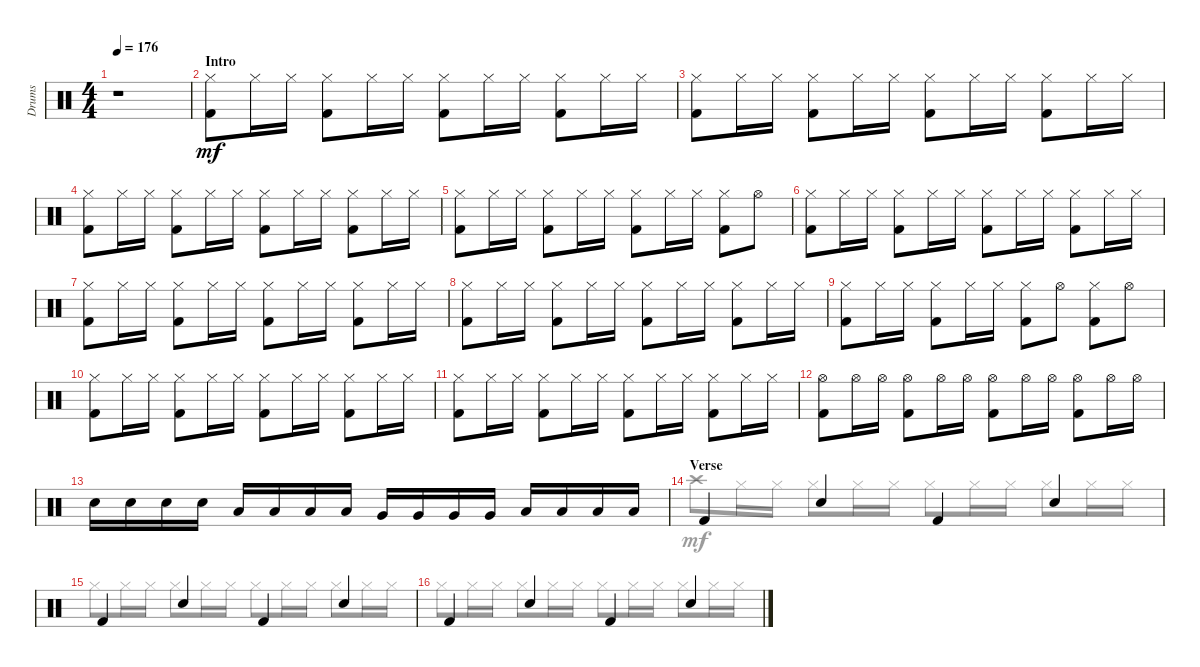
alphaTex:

\track ("Drums" "Drums") {instrument percussion}
\staff {score}
\articulation defaults
\voice
\ts (4 4)
\tempo 176
\clef neutral
\ks aminor
r.1{dy mf} |
\section ("" "Intro")
("Kick (hit) 2" "Hi-Hat (closed)").8 "Hi-Hat (closed)".16 "Hi-Hat (closed)".16 ("Kick (hit) 2" "Hi-Hat (closed)").8 "Hi-Hat (closed)".16 "Hi-Hat (closed)".16 ("Kick (hit) 2" "Hi-Hat (closed)").8 "Hi-Hat (closed)".16 "Hi-Hat (closed)".16 ("Kick (hit) 2" "Hi-Hat (closed)").8 "Hi-Hat (closed)".16 "Hi-Hat (closed)".16 |
("Kick (hit) 2" "Hi-Hat (closed)").8 "Hi-Hat (closed)".16 "Hi-Hat (closed)".16 ("Kick (hit) 2" "Hi-Hat (closed)").8 "Hi-Hat (closed)".16 "Hi-Hat (closed)".16 ("Kick (hit) 2" "Hi-Hat (closed)").8 "Hi-Hat (closed)".16 "Hi-Hat (closed)".16 ("Kick (hit) 2" "Hi-Hat (closed)").8 "Hi-Hat (closed)".16 "Hi-Hat (closed)".16 |
("Kick (hit) 2" "Hi-Hat (closed)").8 "Hi-Hat (closed)".16 "Hi-Hat (closed)".16 ("Kick (hit) 2" "Hi-Hat (closed)").8 "Hi-Hat (closed)".16 "Hi-Hat (closed)".16 ("Kick (hit) 2" "Hi-Hat (closed)").8 "Hi-Hat (closed)".16 "Hi-Hat (closed)".16 ("Kick (hit) 2" "Hi-Hat (closed)").8 "Hi-Hat (closed)".16 "Hi-Hat (closed)".16 |
("Kick (hit) 2" "Hi-Hat (closed)").8 "Hi-Hat (closed)".16 "Hi-Hat (closed)".16 ("Kick (hit) 2" "Hi-Hat (closed)").8 "Hi-Hat (closed)".16 "Hi-Hat (closed)".16 ("Kick (hit) 2" "Hi-Hat (closed)").8 "Hi-Hat (closed)".16 "Hi-Hat (closed)".16 ("Kick (hit) 2" "Hi-Hat (closed)").8 "Hi-Hat (open)".8 |
("Kick (hit) 2" "Hi-Hat (closed)").8 "Hi-Hat (closed)".16 "Hi-Hat (closed)".16 ("Kick (hit) 2" "Hi-Hat (closed)").8 "Hi-Hat (closed)".16 "Hi-Hat (closed)".16 ("Kick (hit) 2" "Hi-Hat (closed)").8 "Hi-Hat (closed)".16 "Hi-Hat (closed)".16 ("Kick (hit) 2" "Hi-Hat (closed)").8 "Hi-Hat (closed)".16 "Hi-Hat (closed)".16 |
("Kick (hit) 2" "Hi-Hat (closed)").8 "Hi-Hat (closed)".16 "Hi-Hat (closed)".16 ("Kick (hit) 2" "Hi-Hat (closed)").8 "Hi-Hat (closed)".16 "Hi-Hat (closed)".16 ("Kick (hit) 2" "Hi-Hat (closed)").8 "Hi-Hat (closed)".16 "Hi-Hat (closed)".16 ("Kick (hit) 2" "Hi-Hat (closed)").8 "Hi-Hat (closed)".16 "Hi-Hat (closed)".16 |
("Kick (hit) 2" "Hi-Hat (closed)").8 "Hi-Hat (closed)".16 "Hi-Hat (closed)".16 ("Kick (hit) 2" "Hi-Hat (closed)").8 "Hi-Hat (closed)".16 "Hi-Hat (closed)".16 ("Kick (hit) 2" "Hi-Hat (closed)").8 "Hi-Hat (closed)".16 "Hi-Hat (closed)".16 ("Kick (hit) 2" "Hi-Hat (closed)").8 "Hi-Hat (closed)".16 "Hi-Hat (closed)".16 |
("Kick (hit) 2" "Hi-Hat (closed)").8 "Hi-Hat (closed)".16 "Hi-Hat (closed)".16 ("Kick (hit) 2" "Hi-Hat (closed)").8 "Hi-Hat (closed)".16 "Hi-Hat (closed)".16 ("Kick (hit) 2" "Hi-Hat (closed)").8 "Hi-Hat (open)".8 ("Kick (hit) 2" "Hi-Hat (closed)").8 "Hi-Hat (open)".8 |
("Kick (hit) 2" "Hi-Hat (closed)").8 "Hi-Hat (closed)".16 "Hi-Hat (closed)".16 ("Kick (hit) 2" "Hi-Hat (closed)").8 "Hi-Hat (closed)".16 "Hi-Hat (closed)".16 ("Kick (hit) 2" "Hi-Hat (closed)").8 "Hi-Hat (closed)".16 "Hi-Hat (closed)".16 ("Kick (hit) 2" "Hi-Hat (closed)").8 "Hi-Hat (closed)".16 "Hi-Hat (closed)".16 |
("Kick (hit) 2" "Hi-Hat (closed)").8 "Hi-Hat (closed)".16 "Hi-Hat (closed)".16 ("Kick (hit) 2" "Hi-Hat (closed)").8 "Hi-Hat (closed)".16 "Hi-Hat (closed)".16 ("Kick (hit) 2" "Hi-Hat (closed)").8 "Hi-Hat (closed)".16 "Hi-Hat (closed)".16 ("Kick (hit) 2" "Hi-Hat (closed)").8 "Hi-Hat (closed)".16 "Hi-Hat (closed)".16 |
("Kick (hit) 2" "Hi-Hat (open)").8 "Hi-Hat (open)".16 "Hi-Hat (open)".16 ("Kick (hit) 2" "Hi-Hat (open)").8 "Hi-Hat (open)".16 "Hi-Hat (open)".16 ("Kick (hit) 2" "Hi-Hat (open)").8 "Hi-Hat (open)".16 "Hi-Hat (open)".16 ("Kick (hit) 2" "Hi-Hat (open)").8 "Hi-Hat (open)".16 "Hi-Hat (open)".16 |
"Snare (hit) 2".16 "Snare (hit) 2".16 "Snare (hit) 2".16 "Snare (hit) 2".16 "Low Tom (hit)".16 "Low Tom (hit)".16 "Low Tom (hit)".16 "Low Tom (hit)".16 "Very Low Tom (hit)".16 "Very Low Tom (hit)".16 "Very Low Tom (hit)".16 "Very Low Tom (hit)".16 "Low Floor Tom (hit)".16 "Low Floor Tom (hit)".16 "Low Floor Tom (hit)".16 "Low Floor Tom (hit)".16 |
\section ("" "Verse")
"Kick (hit) 2".4 "Snare (hit) 2".4 "Kick (hit) 2".4 "Snare (hit) 2".4 |
"Kick (hit) 2".4 "Snare (hit) 2".4 "Kick (hit) 2".4 "Snare (hit) 2".4 |
"Kick (hit) 2".4 "Snare (hit) 2".4 "Kick (hit) 2".4 "Snare (hit) 2".4
\voice
\clef neutral
\ottava regular
\simile none
\ks aminor
|
|
|
|
|
|
|
|
|
|
|
|
|
"Crash high (hit)".8 "Hi-Hat (closed)".16 "Hi-Hat (closed)".16 "Hi-Hat (closed)".8 "Hi-Hat (closed)".16 "Hi-Hat (closed)".16 "Hi-Hat (closed)".8 "Hi-Hat (closed)".16 "Hi-Hat (closed)".16 "Hi-Hat (closed)".8 "Hi-Hat (closed)".16 "Hi-Hat (closed)".16 |
"Hi-Hat (closed)".8 "Hi-Hat (closed)".16 "Hi-Hat (closed)".16 "Hi-Hat (closed)".8 "Hi-Hat (closed)".16 "Hi-Hat (closed)".16 "Hi-Hat (closed)".8 "Hi-Hat (closed)".16 "Hi-Hat (closed)".16 "Hi-Hat (closed)".8 "Hi-Hat (closed)".16 "Hi-Hat (closed)".16 |
"Hi-Hat (closed)".8 "Hi-Hat (closed)".16 "Hi-Hat (closed)".16 "Hi-Hat (closed)".8 "Hi-Hat (closed)".16 "Hi-Hat (closed)".16 "Hi-Hat (closed)".8 "Hi-Hat (closed)".16 "Hi-Hat (closed)".16 "Hi-Hat (closed)".8 "Hi-Hat (closed)".16 "Hi-Hat (closed)".16
